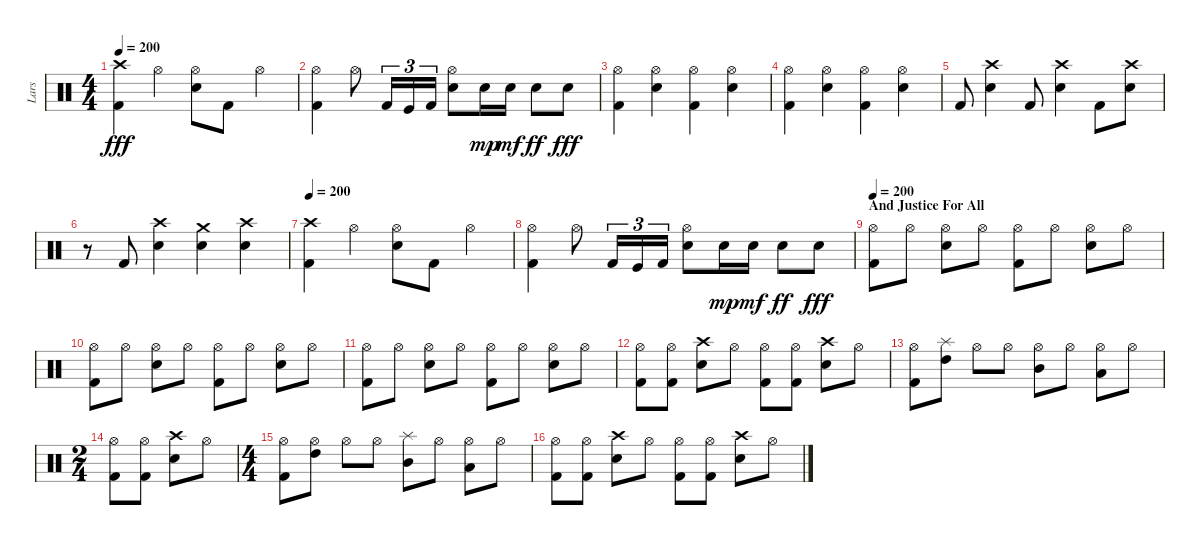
\track ("Lars" "Lars") {instrument percussion}
\staff {score}
\articulation defaults
\ts (4 4)
\tempo 200
\clef neutral
\ks c
("Crash high (hit)" "Kick (hit) 2").4{dy fff} "Hi-Hat (open)".4 ("Hi-Hat (open)" "Snare (hit) 2").8 "Kick (hit) 2".8 "Hi-Hat (open)".4 |
("Hi-Hat (open)" "Kick (hit) 2").4 "Hi-Hat (open)".8 "Kick (hit) 2".16{tu (3 2)} "Kick (hit)".16{tu (3 2)} "Kick (hit) 2".16{tu (3 2)} ("Hi-Hat (open)" "Snare (hit) 2").8 "Snare (hit) 2".16{dy mp} "Snare (hit) 2".16{dy mf} "Snare (hit) 2".8{dy ff} "Snare (hit) 2".8{dy fff} |
("Hi-Hat (open)" "Kick (hit) 2").4 ("Hi-Hat (open)" "Snare (hit) 2").4 ("Hi-Hat (open)" "Kick (hit) 2").4 ("Hi-Hat (open)" "Snare (hit) 2").4 |
("Hi-Hat (open)" "Kick (hit) 2").4 ("Hi-Hat (open)" "Snare (hit) 2").4 ("Hi-Hat (open)" "Kick (hit) 2").4 ("Hi-Hat (open)" "Snare (hit) 2").4 |
"Kick (hit) 2".8 ("Crash high (hit)" "Snare (hit) 2").4 "Kick (hit) 2".8 ("Crash high (hit)" "Snare (hit) 2").4 "Kick (hit) 2".8 ("Crash high (hit)" "Snare (hit) 2").8 |
r.8 "Kick (hit) 2".8 ("Crash high (hit)" "Snare (hit) 2").4 ("Crash medium (hit)" "Snare (hit) 2").4 ("Crash high (hit)" "Snare (hit) 2").4 |
\tempo 200
("Crash high (hit)" "Kick (hit) 2").4 "Hi-Hat (open)".4 ("Hi-Hat (open)" "Snare (hit) 2").8 "Kick (hit) 2".8 "Hi-Hat (open)".4 |
("Hi-Hat (open)" "Kick (hit) 2").4 "Hi-Hat (open)".8 "Kick (hit) 2".16{tu (3 2)} "Kick (hit)".16{tu (3 2)} "Kick (hit) 2".16{tu (3 2)} ("Hi-Hat (open)" "Snare (hit) 2").8 "Snare (hit) 2".16{dy mp} "Snare (hit) 2".16{dy mf} "Snare (hit) 2".8{dy ff} "Snare (hit) 2".8{dy fff} |
\section ("" "And Justice For All")
\tempo 200
("Hi-Hat (open)" "Kick (hit) 2").8 "Hi-Hat (open)".8 ("Hi-Hat (open)" "Snare (hit) 2").8 "Hi-Hat (open)".8 ("Hi-Hat (open)" "Kick (hit) 2").8 "Hi-Hat (open)".8 ("Hi-Hat (open)" "Snare (hit) 2").8 "Hi-Hat (open)".8 |
("Hi-Hat (open)" "Kick (hit) 2").8 "Hi-Hat (open)".8 ("Hi-Hat (open)" "Snare (hit) 2").8 "Hi-Hat (open)".8 ("Hi-Hat (open)" "Kick (hit) 2").8 "Hi-Hat (open)".8 ("Hi-Hat (open)" "Snare (hit) 2").8 "Hi-Hat (open)".8 |
("Hi-Hat (open)" "Kick (hit) 2").8 "Hi-Hat (open)".8 ("Hi-Hat (open)" "Snare (hit) 2").8 "Hi-Hat (open)".8 ("Hi-Hat (open)" "Kick (hit) 2").8 "Hi-Hat (open)".8 ("Hi-Hat (open)" "Snare (hit) 2").8 "Hi-Hat (open)".8 |
("Hi-Hat (open)" "Kick (hit) 2").8 ("Hi-Hat (open)" "Kick (hit) 2").8 ("Crash high (hit)" "Snare (hit) 2").8 "Hi-Hat (open)".8 ("Hi-Hat (open)" "Kick (hit) 2").8 ("Hi-Hat (open)" "Kick (hit) 2").8 ("Crash high (hit)" "Snare (hit) 2").8 "Hi-Hat (open)".8 |
("Hi-Hat (open)" "Kick (hit) 2").8 ("Splash (hit)" "High Tom (hit)").8 "Hi-Hat (open)".8 "Hi-Hat (open)".8 ("Hi-Hat (open)" "Mid Tom (hit)").8 "Hi-Hat (open)".8 ("Hi-Hat (open)" "Low Tom (hit)").8 "Hi-Hat (open)".8 |
\ts (2 4)
("Hi-Hat (open)" "Kick (hit) 2").8 ("Hi-Hat (open)" "Kick (hit) 2").8 ("Crash high (hit)" "Snare (hit) 2").8 "Hi-Hat (open)".8 |
\ts (4 4)
("Hi-Hat (open)" "Kick (hit) 2").8 ("Hi-Hat (open)" "High Tom (hit)").8 "Hi-Hat (open)".8 "Hi-Hat (open)".8 ("Splash (hit)" "Mid Tom (hit)").8 "Hi-Hat (open)".8 ("Hi-Hat (open)" "Low Tom (hit)").8 "Hi-Hat (open)".8 |
("Hi-Hat (open)" "Kick (hit) 2").8 ("Hi-Hat (open)" "Kick (hit) 2").8 ("Crash high (hit)" "Snare (hit) 2").8 "Hi-Hat (open)".8 ("Hi-Hat (open)" "Kick (hit) 2").8 ("Hi-Hat (open)" "Kick (hit) 2").8 ("Crash high (hit)" "Snare (hit) 2").8 "Hi-Hat (open)".8
